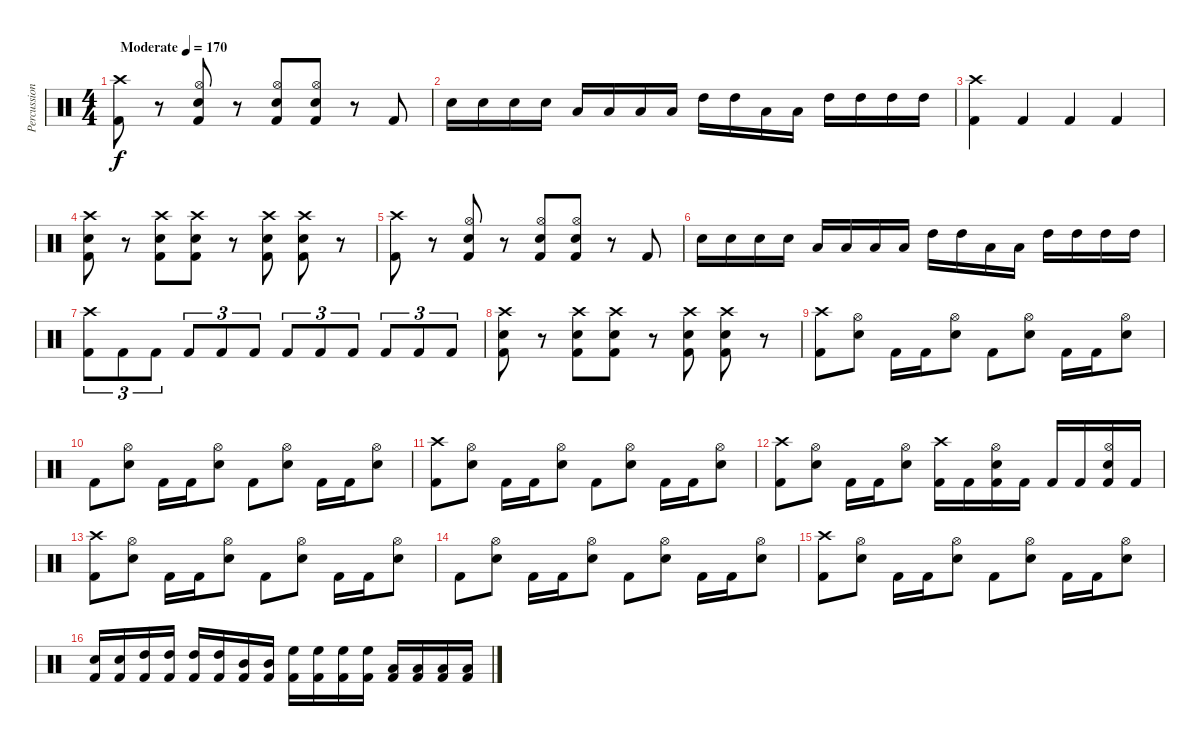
\track ("Percussion" "Percussion") {instrument percussion}
\staff {score}
\articulation defaults
\ts (4 4)
\tempo (170 "Moderate")
\clef neutral
\ks c
("Crash high (hit)" "Kick (hit) 2").8{dy f} r.8 ("Hi-Hat (open)" "Snare (hit) 2" "Kick (hit) 2").8 r.8 ("Hi-Hat (open)" "Snare (hit) 2" "Kick (hit) 2").8 ("Hi-Hat (open)" "Snare (hit) 2" "Kick (hit) 2").8 r.8 "Kick (hit) 2".8 |
"Snare (hit) 2".16 "Snare (hit) 2".16 "Snare (hit) 2".16 "Snare (hit) 2".16 "Low Tom (hit)".16 "Low Tom (hit)".16 "Low Tom (hit)".16 "Low Tom (hit)".16 "High Tom (hit)".16 "High Tom (hit)".16 "Low Tom (hit)".16 "Low Tom (hit)".16 "High Tom (hit)".16 "High Tom (hit)".16 "High Tom (hit)".16 "High Tom (hit)".16 |
("Crash high (hit)" "Kick (hit) 2").4 "Kick (hit) 2".4 "Kick (hit) 2".4 "Kick (hit) 2".4 |
("Crash high (hit)" "Snare (hit) 2" "Kick (hit) 2").8 r.8 ("Crash high (hit)" "Snare (hit) 2" "Kick (hit) 2").8 ("Crash high (hit)" "Snare (hit) 2" "Kick (hit) 2").8 r.8 ("Crash high (hit)" "Snare (hit) 2" "Kick (hit) 2").8 ("Crash high (hit)" "Snare (hit) 2" "Kick (hit) 2").8 r.8 |
("Crash high (hit)" "Kick (hit) 2").8 r.8 ("Hi-Hat (open)" "Snare (hit) 2" "Kick (hit) 2").8 r.8 ("Hi-Hat (open)" "Snare (hit) 2" "Kick (hit) 2").8 ("Hi-Hat (open)" "Snare (hit) 2" "Kick (hit) 2").8 r.8 "Kick (hit) 2".8 |
"Snare (hit) 2".16 "Snare (hit) 2".16 "Snare (hit) 2".16 "Snare (hit) 2".16 "Low Tom (hit)".16 "Low Tom (hit)".16 "Low Tom (hit)".16 "Low Tom (hit)".16 "High Tom (hit)".16 "High Tom (hit)".16 "Low Tom (hit)".16 "Low Tom (hit)".16 "High Tom (hit)".16 "High Tom (hit)".16 "High Tom (hit)".16 "High Tom (hit)".16 |
("Crash high (hit)" "Kick (hit) 2").8{tu (3 2)} "Kick (hit) 2".8{tu (3 2)} "Kick (hit) 2".8{tu (3 2)} "Kick (hit) 2".8{tu (3 2)} "Kick (hit) 2".8{tu (3 2)} "Kick (hit) 2".8{tu (3 2)} "Kick (hit) 2".8{tu (3 2)} "Kick (hit) 2".8{tu (3 2)} "Kick (hit) 2".8{tu (3 2)} "Kick (hit) 2".8{tu (3 2)} "Kick (hit) 2".8{tu (3 2)} "Kick (hit) 2".8{tu (3 2)} |
("Crash high (hit)" "Snare (hit) 2" "Kick (hit) 2").8 r.8 ("Crash high (hit)" "Snare (hit) 2" "Kick (hit) 2").8 ("Crash high (hit)" "Snare (hit) 2" "Kick (hit) 2").8 r.8 ("Crash high (hit)" "Snare (hit) 2" "Kick (hit) 2").8 ("Crash high (hit)" "Snare (hit) 2" "Kick (hit) 2").8 r.8 |
("Crash high (hit)" "Kick (hit) 2").8 ("Hi-Hat (open)" "Snare (hit) 2").8 "Kick (hit) 2".16 "Kick (hit) 2".16 ("Hi-Hat (open)" "Snare (hit) 2").8 "Kick (hit) 2".8 ("Hi-Hat (open)" "Snare (hit) 2").8 "Kick (hit) 2".16 "Kick (hit) 2".16 ("Hi-Hat (open)" "Snare (hit) 2").8 |
"Kick (hit) 2".8 ("Hi-Hat (open)" "Snare (hit) 2").8 "Kick (hit) 2".16 "Kick (hit) 2".16 ("Hi-Hat (open)" "Snare (hit) 2").8 "Kick (hit) 2".8 ("Hi-Hat (open)" "Snare (hit) 2").8 "Kick (hit) 2".16 "Kick (hit) 2".16 ("Hi-Hat (open)" "Snare (hit) 2").8 |
("Crash high (hit)" "Kick (hit) 2").8 ("Hi-Hat (open)" "Snare (hit) 2").8 "Kick (hit) 2".16 "Kick (hit) 2".16 ("Hi-Hat (open)" "Snare (hit) 2").8 "Kick (hit) 2".8 ("Hi-Hat (open)" "Snare (hit) 2").8 "Kick (hit) 2".16 "Kick (hit) 2".16 ("Hi-Hat (open)" "Snare (hit) 2").8 |
("Crash high (hit)" "Kick (hit) 2").8 ("Hi-Hat (open)" "Snare (hit) 2").8 "Kick (hit) 2".16 "Kick (hit) 2".16 ("Hi-Hat (open)" "Snare (hit) 2").8 ("Crash high (hit)" "Kick (hit) 2").16 "Kick (hit) 2".16 ("Hi-Hat (open)" "Snare (hit) 2" "Kick (hit) 2").16 "Kick (hit) 2".16 "Kick (hit) 2".16 "Kick (hit) 2".16 ("Hi-Hat (open)" "Snare (hit) 2" "Kick (hit) 2").16 "Kick (hit) 2".16 |
("Crash high (hit)" "Kick (hit) 2").8 ("Hi-Hat (open)" "Snare (hit) 2").8 "Kick (hit) 2".16 "Kick (hit) 2".16 ("Hi-Hat (open)" "Snare (hit) 2").8 "Kick (hit) 2".8 ("Hi-Hat (open)" "Snare (hit) 2").8 "Kick (hit) 2".16 "Kick (hit) 2".16 ("Hi-Hat (open)" "Snare (hit) 2").8 |
"Kick (hit) 2".8 ("Hi-Hat (open)" "Snare (hit) 2").8 "Kick (hit) 2".16 "Kick (hit) 2".16 ("Hi-Hat (open)" "Snare (hit) 2").8 "Kick (hit) 2".8 ("Hi-Hat (open)" "Snare (hit) 2").8 "Kick (hit) 2".16 "Kick (hit) 2".16 ("Hi-Hat (open)" "Snare (hit) 2").8 |
("Crash high (hit)" "Kick (hit) 2").8 ("Hi-Hat (open)" "Snare (hit) 2").8 "Kick (hit) 2".16 "Kick (hit) 2".16 ("Hi-Hat (open)" "Snare (hit) 2").8 "Kick (hit) 2".8 ("Hi-Hat (open)" "Snare (hit) 2").8 "Kick (hit) 2".16 "Kick (hit) 2".16 ("Hi-Hat (open)" "Snare (hit) 2").8 |
("Snare (hit) 2" "Kick (hit) 2").16 ("Snare (hit) 2" "Kick (hit) 2").16 ("High Tom (hit)" "Kick (hit) 2").16 ("High Tom (hit)" "Kick (hit) 2").16 ("High Tom (hit)" "Kick (hit) 2").16 ("High Tom (hit)" "Kick (hit) 2").16 ("Mid Tom (hit)" "Kick (hit) 2").16 ("Mid Tom (hit)" "Kick (hit) 2").16 ("High Floor Tom (hit)" "Kick (hit) 2").16 ("High Floor Tom (hit)" "Kick (hit) 2").16 ("High Floor Tom (hit)" "Kick (hit) 2").16 ("High Floor Tom (hit)" "Kick (hit) 2").16 ("Low Tom (hit)" "Kick (hit) 2").16 ("Low Tom (hit)" "Kick (hit) 2").16 ("Low Tom (hit)" "Kick (hit) 2").16 ("Low Tom (hit)" "Kick (hit) 2").16
